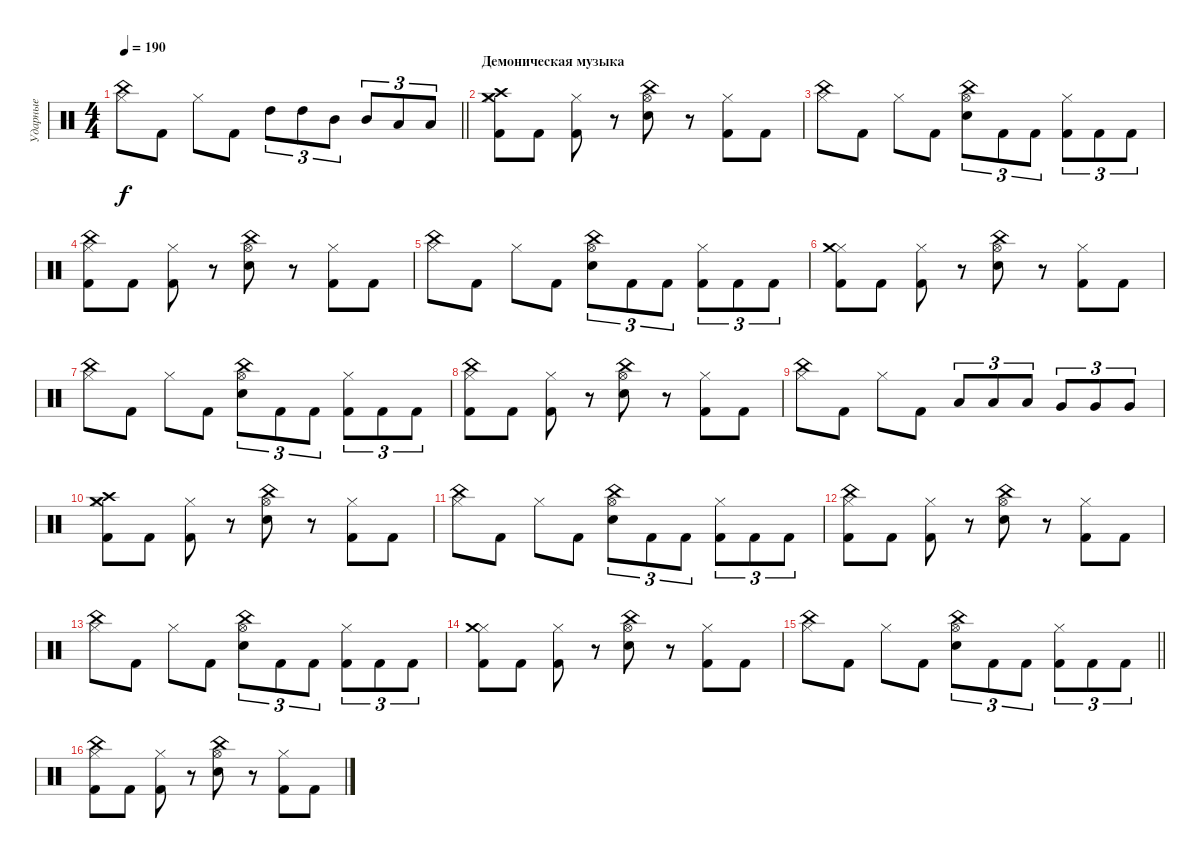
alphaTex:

\track ("Ударные" "Ударные") {instrument percussion}
\staff {score}
\articulation defaults
\ts (4 4)
\tempo 190
\clef neutral
\barLineRight lightlight
\ks c
("Hi-Hat (closed)" "China (hit)").8{dy f} "Kick (hit) 2".8 "Hi-Hat (closed)".8 "Kick (hit) 2".8 "High Tom (hit)".8{tu (3 2)} "High Tom (hit)".8{tu (3 2)} "Mid Tom (hit)".8{tu (3 2)} "Mid Tom (hit)".8{tu (3 2)} "Low Tom (hit)".8{tu (3 2)} "Low Tom (hit)".8{tu (3 2)} |
\section ("" "Демоническая музыка")
("Kick (hit) 2" "Hi-Hat (closed)" "Crash high (hit)" "Crash medium (hit)").8 "Kick (hit) 2".8 ("Kick (hit) 2" "Hi-Hat (closed)").8 r.8 ("Hi-Hat (open)" "Electric Snare (hit)" "China (hit)").8 r.8 ("Kick (hit) 2" "Hi-Hat (closed)").8 "Kick (hit) 2".8 |
("Hi-Hat (closed)" "China (hit)").8 "Kick (hit) 2".8 "Hi-Hat (closed)".8 "Kick (hit) 2".8 ("Electric Snare (hit)" "Hi-Hat (open)" "China (hit)").8{tu (3 2)} "Kick (hit) 2".8{tu (3 2)} "Kick (hit) 2".8{tu (3 2)} ("Kick (hit) 2" "Hi-Hat (closed)").8{tu (3 2)} "Kick (hit) 2".8{tu (3 2)} "Kick (hit) 2".8{tu (3 2)} |
("Kick (hit) 2" "Hi-Hat (closed)" "China (hit)").8 "Kick (hit) 2".8 ("Kick (hit) 2" "Hi-Hat (closed)").8 r.8 ("Hi-Hat (open)" "Electric Snare (hit)" "China (hit)").8 r.8 ("Kick (hit) 2" "Hi-Hat (closed)").8 "Kick (hit) 2".8 |
("Hi-Hat (closed)" "China (hit)").8 "Kick (hit) 2".8 "Hi-Hat (closed)".8 "Kick (hit) 2".8 ("Electric Snare (hit)" "Hi-Hat (open)" "China (hit)").8{tu (3 2)} "Kick (hit) 2".8{tu (3 2)} "Kick (hit) 2".8{tu (3 2)} ("Kick (hit) 2" "Hi-Hat (closed)").8{tu (3 2)} "Kick (hit) 2".8{tu (3 2)} "Kick (hit) 2".8{tu (3 2)} |
("Kick (hit) 2" "Hi-Hat (closed)" "Crash medium (hit)").8 "Kick (hit) 2".8 ("Kick (hit) 2" "Hi-Hat (closed)").8 r.8 ("Hi-Hat (open)" "Electric Snare (hit)" "China (hit)").8 r.8 ("Kick (hit) 2" "Hi-Hat (closed)").8 "Kick (hit) 2".8 |
("Hi-Hat (closed)" "China (hit)").8 "Kick (hit) 2".8 "Hi-Hat (closed)".8 "Kick (hit) 2".8 ("Electric Snare (hit)" "Hi-Hat (open)" "China (hit)").8{tu (3 2)} "Kick (hit) 2".8{tu (3 2)} "Kick (hit) 2".8{tu (3 2)} ("Kick (hit) 2" "Hi-Hat (closed)").8{tu (3 2)} "Kick (hit) 2".8{tu (3 2)} "Kick (hit) 2".8{tu (3 2)} |
("Kick (hit) 2" "Hi-Hat (closed)" "China (hit)").8 "Kick (hit) 2".8 ("Kick (hit) 2" "Hi-Hat (closed)").8 r.8 ("Hi-Hat (open)" "Electric Snare (hit)" "China (hit)").8 r.8 ("Kick (hit) 2" "Hi-Hat (closed)").8 "Kick (hit) 2".8 |
("Hi-Hat (closed)" "China (hit)").8 "Kick (hit) 2".8 "Hi-Hat (closed)".8 "Kick (hit) 2".8 "Low Tom (hit)".8{tu (3 2)} "Low Tom (hit)".8{tu (3 2)} "Low Tom (hit)".8{tu (3 2)} "Very Low Tom (hit)".8{tu (3 2)} "Very Low Tom (hit)".8{tu (3 2)} "Very Low Tom (hit)".8{tu (3 2)} |
("Kick (hit) 2" "Hi-Hat (closed)" "Crash high (hit)" "Crash medium (hit)").8 "Kick (hit) 2".8 ("Kick (hit) 2" "Hi-Hat (closed)").8 r.8 ("Hi-Hat (open)" "Electric Snare (hit)" "China (hit)").8 r.8 ("Kick (hit) 2" "Hi-Hat (closed)").8 "Kick (hit) 2".8 |
("Hi-Hat (closed)" "China (hit)").8 "Kick (hit) 2".8 "Hi-Hat (closed)".8 "Kick (hit) 2".8 ("Electric Snare (hit)" "Hi-Hat (open)" "China (hit)").8{tu (3 2)} "Kick (hit) 2".8{tu (3 2)} "Kick (hit) 2".8{tu (3 2)} ("Kick (hit) 2" "Hi-Hat (closed)").8{tu (3 2)} "Kick (hit) 2".8{tu (3 2)} "Kick (hit) 2".8{tu (3 2)} |
("Kick (hit) 2" "Hi-Hat (closed)" "China (hit)").8 "Kick (hit) 2".8 ("Kick (hit) 2" "Hi-Hat (closed)").8 r.8 ("Hi-Hat (open)" "Electric Snare (hit)" "China (hit)").8 r.8 ("Kick (hit) 2" "Hi-Hat (closed)").8 "Kick (hit) 2".8 |
("Hi-Hat (closed)" "China (hit)").8 "Kick (hit) 2".8 "Hi-Hat (closed)".8 "Kick (hit) 2".8 ("Electric Snare (hit)" "Hi-Hat (open)" "China (hit)").8{tu (3 2)} "Kick (hit) 2".8{tu (3 2)} "Kick (hit) 2".8{tu (3 2)} ("Kick (hit) 2" "Hi-Hat (closed)").8{tu (3 2)} "Kick (hit) 2".8{tu (3 2)} "Kick (hit) 2".8{tu (3 2)} |
("Kick (hit) 2" "Hi-Hat (closed)" "Crash medium (hit)").8 "Kick (hit) 2".8 ("Kick (hit) 2" "Hi-Hat (closed)").8 r.8 ("Hi-Hat (open)" "Electric Snare (hit)" "China (hit)").8 r.8 ("Kick (hit) 2" "Hi-Hat (closed)").8 "Kick (hit) 2".8 |
\barLineRight lightlight
("Hi-Hat (closed)" "China (hit)").8 "Kick (hit) 2".8 "Hi-Hat (closed)".8 "Kick (hit) 2".8 ("Electric Snare (hit)" "Hi-Hat (open)" "China (hit)").8{tu (3 2)} "Kick (hit) 2".8{tu (3 2)} "Kick (hit) 2".8{tu (3 2)} ("Kick (hit) 2" "Hi-Hat (closed)").8{tu (3 2)} "Kick (hit) 2".8{tu (3 2)} "Kick (hit) 2".8{tu (3 2)} |
("Kick (hit) 2" "Hi-Hat (closed)" "China (hit)").8 "Kick (hit) 2".8 ("Kick (hit) 2" "Hi-Hat (closed)").8 r.8 ("Hi-Hat (open)" "Electric Snare (hit)" "China (hit)").8 r.8 ("Kick (hit) 2" "Hi-Hat (closed)").8 "Kick (hit) 2".8
